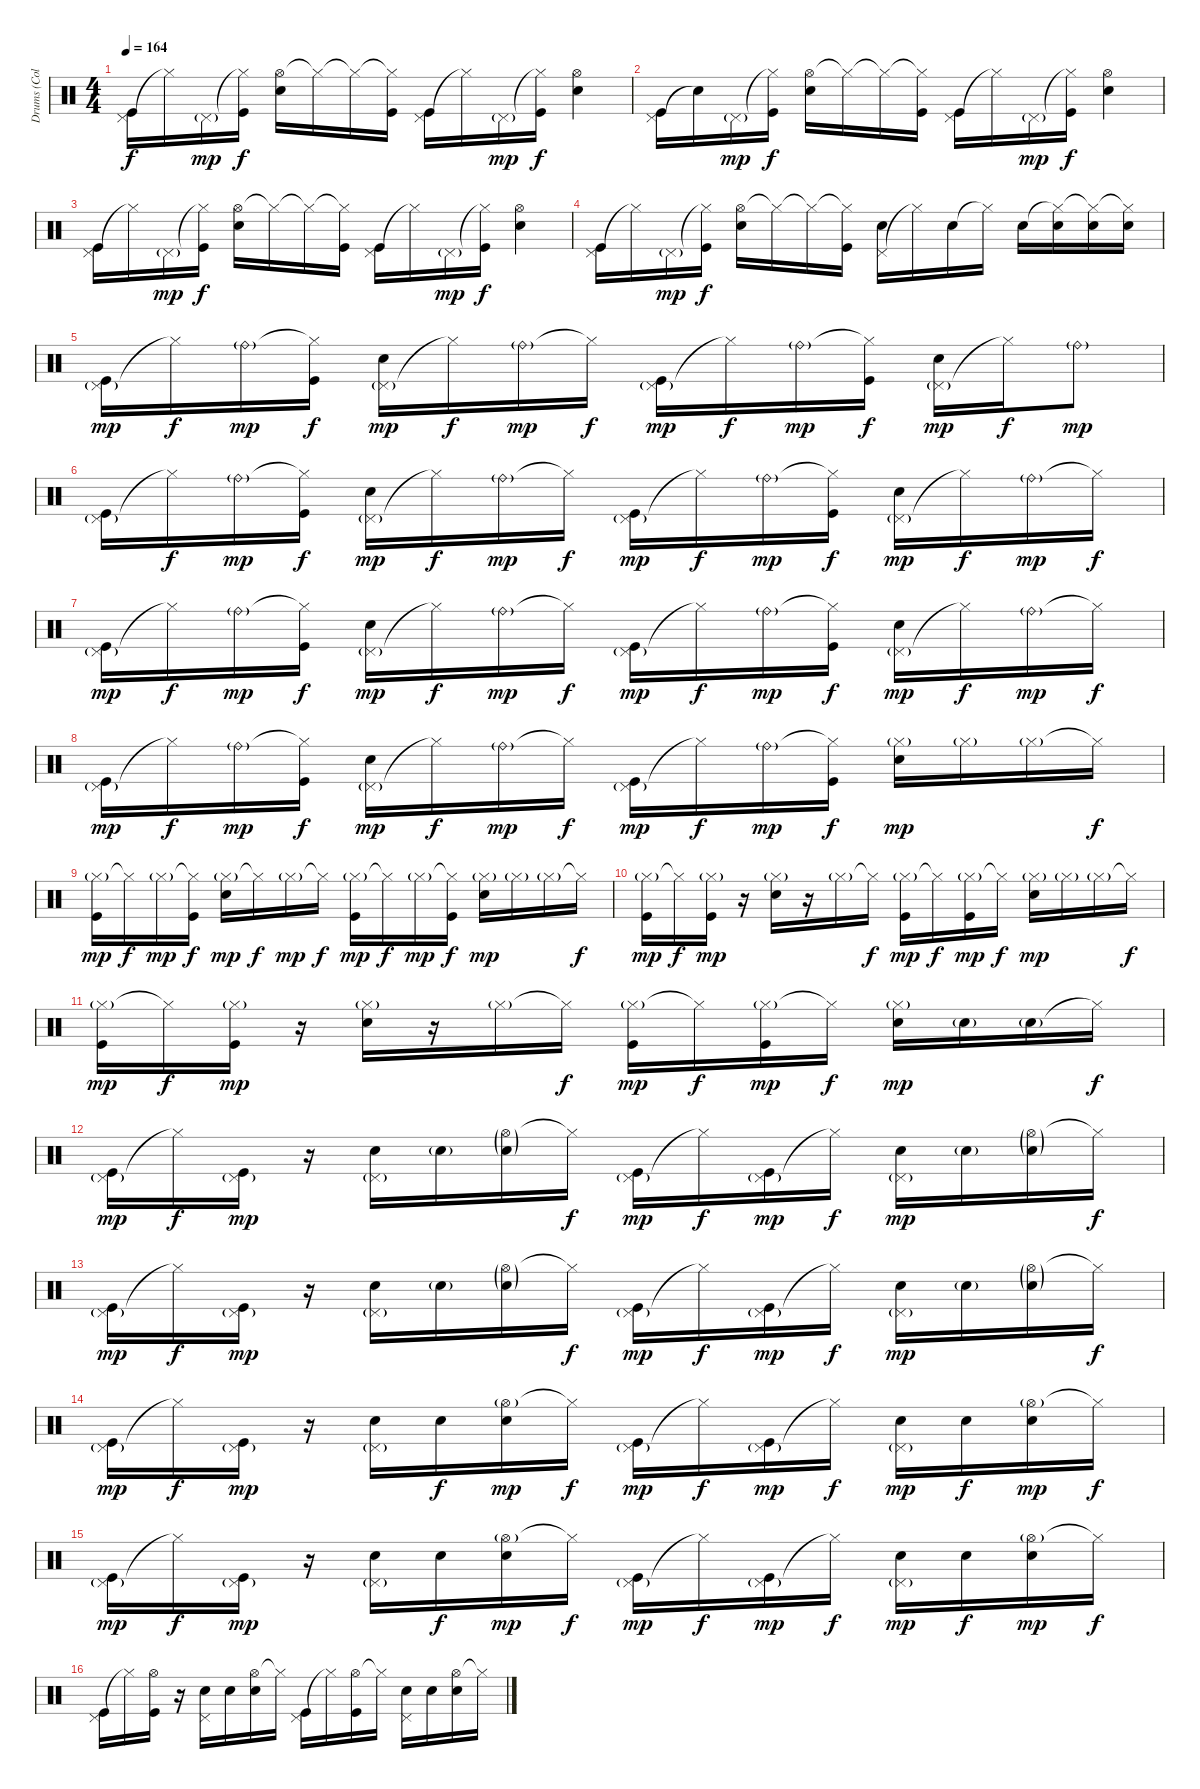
\track ("Drums (Collins)" "Drums (Col") {instrument percussion}
\staff {score}
\articulation defaults
\ts (4 4)
\tempo 164
\clef neutral
\ks c
("Pedal Hi-Hat (hit)" "Kick (hit)").16{dy f} "Hi-Hat (closed)"{t}.16 "Pedal Hi-Hat (hit)"{g}.16{dy mp} ("Hi-Hat (closed)"{t} "Kick (hit)").16{dy f} ("Hi-Hat (open)" "Snare (hit) 2").16 "Hi-Hat (closed)"{t}.16 "Hi-Hat (closed)"{t}.16 ("Hi-Hat (closed)"{t} "Kick (hit)").16 ("Pedal Hi-Hat (hit)" "Kick (hit)").16 "Hi-Hat (closed)"{t}.16 "Pedal Hi-Hat (hit)"{g}.16{dy mp} ("Hi-Hat (closed)"{t} "Kick (hit)").16{dy f} ("Hi-Hat (open)" "Snare (hit) 2").4 |
("Pedal Hi-Hat (hit)" "Kick (hit)").16 "Snare (hit)"{t}.16 "Pedal Hi-Hat (hit)"{g}.16{dy mp} ("Hi-Hat (closed)"{t} "Kick (hit)").16{dy f} ("Hi-Hat (open)" "Snare (hit) 2").16 "Hi-Hat (closed)"{t}.16 "Hi-Hat (closed)"{t}.16 ("Hi-Hat (closed)"{t} "Kick (hit)").16 ("Pedal Hi-Hat (hit)" "Kick (hit)").16 "Hi-Hat (closed)"{t}.16 "Pedal Hi-Hat (hit)"{g}.16{dy mp} ("Hi-Hat (closed)"{t} "Kick (hit)").16{dy f} ("Hi-Hat (open)" "Snare (hit) 2").4 |
("Pedal Hi-Hat (hit)" "Kick (hit)").16 "Hi-Hat (closed)"{t}.16 "Pedal Hi-Hat (hit)"{g}.16{dy mp} ("Hi-Hat (closed)"{t} "Kick (hit)").16{dy f} ("Hi-Hat (open)" "Snare (hit) 2").16 "Hi-Hat (closed)"{t}.16 "Hi-Hat (closed)"{t}.16 ("Hi-Hat (closed)"{t} "Kick (hit)").16 ("Pedal Hi-Hat (hit)" "Kick (hit)").16 "Hi-Hat (closed)"{t}.16 "Pedal Hi-Hat (hit)"{g}.16{dy mp} ("Hi-Hat (closed)"{t} "Kick (hit)").16{dy f} ("Hi-Hat (open)" "Snare (hit) 2").4 |
("Pedal Hi-Hat (hit)" "Kick (hit)").16 "Hi-Hat (closed)"{t}.16 "Pedal Hi-Hat (hit)"{g}.16{dy mp} ("Hi-Hat (closed)"{t} "Kick (hit)").16{dy f} ("Hi-Hat (open)" "Snare (hit) 2").16 "Hi-Hat (closed)"{t}.16 "Hi-Hat (closed)"{t}.16 ("Hi-Hat (closed)"{t} "Kick (hit)").16 ("Pedal Hi-Hat (hit)" "Snare (hit) 2").16 "Hi-Hat (closed)"{t}.16 "Snare (hit) 2".16 "Hi-Hat (closed)"{t}.16 "Snare (hit) 2".16 ("Hi-Hat (closed)"{t} "Snare (hit) 2").16 ("Hi-Hat (closed)"{t} "Snare (hit) 2").16 ("Hi-Hat (closed)"{t} "Snare (hit) 2").16 |
("Pedal Hi-Hat (hit)"{g} "Kick (hit)").16{dy mp} "Hi-Hat (closed)"{t}.16{dy f} "Ride (bell)"{g}.16{dy mp} ("Hi-Hat (closed)"{t} "Kick (hit)").16{dy f} ("Pedal Hi-Hat (hit)"{g} "Snare (hit) 2").16{dy mp} "Hi-Hat (closed)"{t}.16{dy f} "Ride (bell)"{g}.16{dy mp} "Hi-Hat (closed)"{t}.16{dy f} ("Pedal Hi-Hat (hit)"{g} "Kick (hit)").16{dy mp} "Hi-Hat (closed)"{t}.16{dy f} "Ride (bell)"{g}.16{dy mp} ("Hi-Hat (closed)"{t} "Kick (hit)").16{dy f} ("Pedal Hi-Hat (hit)"{g} "Snare (hit) 2").16{dy mp} "Hi-Hat (closed)"{t}.16{dy f} "Ride (bell)"{g}.8{dy mp} |
("Pedal Hi-Hat (hit)"{g} "Kick (hit)").16 "Hi-Hat (closed)"{t}.16{dy f} "Ride (bell)"{g}.16{dy mp} ("Hi-Hat (closed)"{t} "Kick (hit)").16{dy f} ("Pedal Hi-Hat (hit)"{g} "Snare (hit) 2").16{dy mp} "Hi-Hat (closed)"{t}.16{dy f} "Ride (bell)"{g}.16{dy mp} "Hi-Hat (closed)"{t}.16{dy f} ("Pedal Hi-Hat (hit)"{g} "Kick (hit)").16{dy mp} "Hi-Hat (closed)"{t}.16{dy f} "Ride (bell)"{g}.16{dy mp} ("Hi-Hat (closed)"{t} "Kick (hit)").16{dy f} ("Pedal Hi-Hat (hit)"{g} "Snare (hit) 2").16{dy mp} "Hi-Hat (closed)"{t}.16{dy f} "Ride (bell)"{g}.16{dy mp} "Hi-Hat (closed)"{t}.16{dy f} |
("Pedal Hi-Hat (hit)"{g} "Kick (hit)").16{dy mp} "Hi-Hat (closed)"{t}.16{dy f} "Ride (bell)"{g}.16{dy mp} ("Hi-Hat (closed)"{t} "Kick (hit)").16{dy f} ("Pedal Hi-Hat (hit)"{g} "Snare (hit) 2").16{dy mp} "Hi-Hat (closed)"{t}.16{dy f} "Ride (bell)"{g}.16{dy mp} "Hi-Hat (closed)"{t}.16{dy f} ("Pedal Hi-Hat (hit)"{g} "Kick (hit)").16{dy mp} "Hi-Hat (closed)"{t}.16{dy f} "Ride (bell)"{g}.16{dy mp} ("Hi-Hat (closed)"{t} "Kick (hit)").16{dy f} ("Pedal Hi-Hat (hit)"{g} "Snare (hit) 2").16{dy mp} "Hi-Hat (closed)"{t}.16{dy f} "Ride (bell)"{g}.16{dy mp} "Hi-Hat (closed)"{t}.16{dy f} |
("Pedal Hi-Hat (hit)"{g} "Kick (hit)").16{dy mp} "Hi-Hat (closed)"{t}.16{dy f} "Ride (bell)"{g}.16{dy mp} ("Hi-Hat (closed)"{t} "Kick (hit)").16{dy f} ("Pedal Hi-Hat (hit)"{g} "Snare (hit) 2").16{dy mp} "Hi-Hat (closed)"{t}.16{dy f} "Ride (bell)"{g}.16{dy mp} "Hi-Hat (closed)"{t}.16{dy f} ("Pedal Hi-Hat (hit)"{g} "Kick (hit)").16{dy mp} "Hi-Hat (closed)"{t}.16{dy f} "Ride (bell)"{g}.16{dy mp} ("Hi-Hat (closed)"{t} "Kick (hit)").16{dy f} ("Hi-Hat (closed)"{g} "Snare (hit) 2").16{dy mp} "Hi-Hat (closed)"{g}.16 "Hi-Hat (closed)"{g}.16 "Hi-Hat (closed)"{t}.16{dy f} |
("Hi-Hat (closed)"{g} "Kick (hit)").16{dy mp volume 3} "Hi-Hat (closed)"{t}.16{dy f} "Hi-Hat (closed)"{g}.16{dy mp} ("Hi-Hat (closed)"{t} "Kick (hit)").16{dy f} ("Hi-Hat (closed)"{g} "Snare (hit) 2").16{dy mp} "Hi-Hat (closed)"{t}.16{dy f} "Hi-Hat (closed)"{g}.16{dy mp} "Hi-Hat (closed)"{t}.16{dy f} ("Hi-Hat (closed)"{g} "Kick (hit)").16{dy mp} "Hi-Hat (closed)"{t}.16{dy f} "Hi-Hat (closed)"{g}.16{dy mp} ("Hi-Hat (closed)"{t} "Kick (hit)").16{dy f} ("Hi-Hat (closed)"{g} "Snare (hit) 2").16{dy mp} "Hi-Hat (closed)"{g}.16 "Hi-Hat (closed)"{g}.16 "Hi-Hat (closed)"{t}.16{dy f} |
("Hi-Hat (closed)"{g} "Kick (hit)").16{dy mp} "Hi-Hat (closed)"{t}.16{dy f} ("Hi-Hat (closed)"{g} "Kick (hit)").16{dy mp} r.16 ("Hi-Hat (closed)"{g} "Snare (hit) 2").16 r.16 "Hi-Hat (closed)"{g}.16 "Hi-Hat (closed)"{t}.16{dy f} ("Hi-Hat (closed)"{g} "Kick (hit)").16{dy mp} "Hi-Hat (closed)"{t}.16{dy f} ("Hi-Hat (closed)"{g} "Kick (hit)").16{dy mp} "Hi-Hat (closed)"{t}.16{dy f} ("Hi-Hat (closed)"{g} "Snare (hit) 2").16{dy mp} "Hi-Hat (closed)"{g}.16 "Hi-Hat (closed)"{g}.16 "Hi-Hat (closed)"{t}.16{dy f} |
("Hi-Hat (closed)"{g} "Kick (hit)").16{dy mp} "Hi-Hat (closed)"{t}.16{dy f} ("Hi-Hat (closed)"{g} "Kick (hit)").16{dy mp} r.16 ("Hi-Hat (closed)"{g} "Snare (hit) 2").16 r.16 "Hi-Hat (closed)"{g}.16 "Hi-Hat (closed)"{t}.16{dy f} ("Hi-Hat (closed)"{g} "Kick (hit)").16{dy mp} "Hi-Hat (closed)"{t}.16{dy f} ("Hi-Hat (closed)"{g} "Kick (hit)").16{dy mp} "Hi-Hat (closed)"{t}.16{dy f} ("Hi-Hat (closed)"{g} "Snare (hit) 2").16{dy mp} "Snare (hit) 2"{g}.16 "Snare (hit) 2"{g}.16 "Hi-Hat (closed)"{t}.16{dy f} |
("Pedal Hi-Hat (hit)"{g} "Kick (hit)").16{dy mp} "Hi-Hat (closed)"{t}.16{dy f} ("Pedal Hi-Hat (hit)"{g} "Kick (hit)").16{dy mp} r.16 ("Pedal Hi-Hat (hit)"{g} "Snare (hit) 2").16 "Snare (hit) 2"{g}.16 ("Hi-Hat (open)"{g} "Snare (hit) 2"{g}).16 "Hi-Hat (closed)"{t}.16{dy f} ("Pedal Hi-Hat (hit)"{g} "Kick (hit)").16{dy mp} "Hi-Hat (closed)"{t}.16{dy f} ("Pedal Hi-Hat (hit)"{g} "Kick (hit)").16{dy mp} "Hi-Hat (closed)"{t}.16{dy f} ("Pedal Hi-Hat (hit)"{g} "Snare (hit) 2").16{dy mp} "Snare (hit) 2"{g}.16 ("Hi-Hat (open)"{g} "Snare (hit) 2"{g}).16 "Hi-Hat (closed)"{t}.16{dy f} |
("Pedal Hi-Hat (hit)"{g} "Kick (hit)").16{dy mp} "Hi-Hat (closed)"{t}.16{dy f} ("Pedal Hi-Hat (hit)"{g} "Kick (hit)").16{dy mp} r.16 ("Pedal Hi-Hat (hit)"{g} "Snare (hit) 2").16 "Snare (hit) 2"{g}.16 ("Hi-Hat (open)"{g} "Snare (hit) 2"{g}).16 "Hi-Hat (closed)"{t}.16{dy f} ("Pedal Hi-Hat (hit)"{g} "Kick (hit)").16{dy mp} "Hi-Hat (closed)"{t}.16{dy f} ("Pedal Hi-Hat (hit)"{g} "Kick (hit)").16{dy mp} "Hi-Hat (closed)"{t}.16{dy f} ("Pedal Hi-Hat (hit)"{g} "Snare (hit) 2").16{dy mp} "Snare (hit) 2"{g}.16 ("Hi-Hat (open)"{g} "Snare (hit) 2"{g}).16 "Hi-Hat (closed)"{t}.16{dy f} |
("Pedal Hi-Hat (hit)"{g} "Kick (hit)").16{dy mp volume 8} "Hi-Hat (closed)"{t}.16{dy f} ("Pedal Hi-Hat (hit)"{g} "Kick (hit)").16{dy mp} r.16 ("Pedal Hi-Hat (hit)"{g} "Snare (hit) 2").16 "Snare (hit) 2".16{dy f} ("Hi-Hat (open)"{g} "Snare (hit) 2").16{dy mp} "Hi-Hat (closed)"{t}.16{dy f} ("Pedal Hi-Hat (hit)"{g} "Kick (hit)").16{dy mp} "Hi-Hat (closed)"{t}.16{dy f} ("Pedal Hi-Hat (hit)"{g} "Kick (hit)").16{dy mp} "Hi-Hat (closed)"{t}.16{dy f} ("Pedal Hi-Hat (hit)"{g} "Snare (hit) 2").16{dy mp} "Snare (hit) 2".16{dy f} ("Hi-Hat (open)"{g} "Snare (hit) 2").16{dy mp} "Hi-Hat (closed)"{t}.16{dy f} |
("Pedal Hi-Hat (hit)"{g} "Kick (hit)").16{dy mp} "Hi-Hat (closed)"{t}.16{dy f} ("Pedal Hi-Hat (hit)"{g} "Kick (hit)").16{dy mp} r.16 ("Pedal Hi-Hat (hit)"{g} "Snare (hit) 2").16 "Snare (hit) 2".16{dy f} ("Hi-Hat (open)"{g} "Snare (hit) 2").16{dy mp} "Hi-Hat (closed)"{t}.16{dy f} ("Pedal Hi-Hat (hit)"{g} "Kick (hit)").16{dy mp} "Hi-Hat (closed)"{t}.16{dy f} ("Pedal Hi-Hat (hit)"{g} "Kick (hit)").16{dy mp} "Hi-Hat (closed)"{t}.16{dy f} ("Pedal Hi-Hat (hit)"{g} "Snare (hit) 2").16{dy mp} "Snare (hit) 2".16{dy f} ("Hi-Hat (open)"{g} "Snare (hit) 2").16{dy mp} "Hi-Hat (closed)"{t}.16{dy f} |
("Pedal Hi-Hat (hit)" "Kick (hit)").16 "Hi-Hat (closed)"{t}.16 ("Hi-Hat (open)" "Kick (hit)").16 r.16 ("Pedal Hi-Hat (hit)" "Snare (hit) 2").16 "Snare (hit) 2".16 ("Hi-Hat (open)" "Snare (hit) 2").16 "Hi-Hat (closed)"{t}.16 ("Pedal Hi-Hat (hit)" "Kick (hit)").16 "Hi-Hat (closed)"{t}.16 ("Hi-Hat (open)" "Kick (hit)").16 "Hi-Hat (closed)"{t}.16 ("Pedal Hi-Hat (hit)" "Snare (hit) 2").16 "Snare (hit) 2".16 ("Hi-Hat (open)" "Snare (hit) 2").16 "Hi-Hat (closed)"{t}.16
